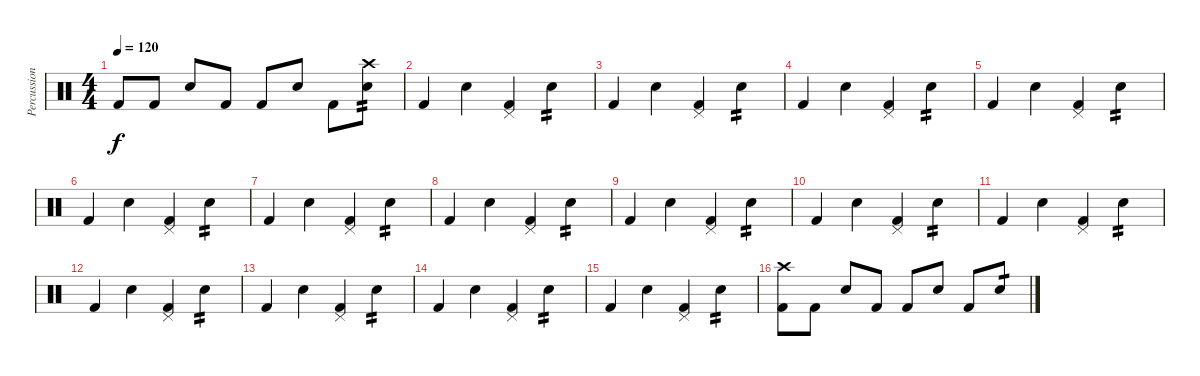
\track ("Percussion" "Percussion") {instrument percussion}
\staff {score}
\articulation defaults
\ts (4 4)
\tempo 120
\clef neutral
\ks c "Kick (hit) 2".8{dy f} "Kick (hit) 2".8 "Snare (hit) 2".8 "Kick (hit) 2".8 "Kick (hit) 2".8 "Snare (hit) 2".8 "Kick (hit) 2".8
("Snare (hit) 2" "Crash high (hit)").8{tp 2} |
"Kick (hit) 2".4 "Snare (hit) 2".4 ("Kick (hit) 2" "Pedal Hi-Hat (hit)").4 "Snare (hit) 2".4{tp 2} |
"Kick (hit) 2".4 "Snare (hit) 2".4 ("Kick (hit) 2" "Pedal Hi-Hat (hit)").4 "Snare (hit) 2".4{tp 2} |
"Kick (hit) 2".4 "Snare (hit) 2".4 ("Kick (hit) 2" "Pedal Hi-Hat (hit)").4 "Snare (hit) 2".4{tp 2} |
"Kick (hit) 2".4 "Snare (hit) 2".4 ("Kick (hit) 2" "Pedal Hi-Hat (hit)").4 "Snare (hit) 2".4{tp 2} |
"Kick (hit) 2".4 "Snare (hit) 2".4 ("Kick (hit) 2" "Pedal Hi-Hat (hit)").4 "Snare (hit) 2".4{tp 2} |
"Kick (hit) 2".4 "Snare (hit) 2".4 ("Kick (hit) 2" "Pedal Hi-Hat (hit)").4 "Snare (hit) 2".4{tp 2} |
"Kick (hit) 2".4 "Snare (hit) 2".4 ("Kick (hit) 2" "Pedal Hi-Hat (hit)").4 "Snare (hit) 2".4{tp 2} |
"Kick (hit) 2".4 "Snare (hit) 2".4 ("Kick (hit) 2" "Pedal Hi-Hat (hit)").4 "Snare (hit) 2".4{tp 2} |
"Kick (hit) 2".4 "Snare (hit) 2".4 ("Kick (hit) 2" "Pedal Hi-Hat (hit)").4 "Snare (hit) 2".4{tp 2} |
"Kick (hit) 2".4 "Snare (hit) 2".4 ("Kick (hit) 2" "Pedal Hi-Hat (hit)").4 "Snare (hit) 2".4{tp 2} |
"Kick (hit) 2".4 "Snare (hit) 2".4 ("Kick (hit) 2" "Pedal Hi-Hat (hit)").4 "Snare (hit) 2".4{tp 2} |
"Kick (hit) 2".4 "Snare (hit) 2".4 ("Kick (hit) 2" "Pedal Hi-Hat (hit)").4 "Snare (hit) 2".4{tp 2} |
"Kick (hit) 2".4 "Snare (hit) 2".4 ("Kick (hit) 2" "Pedal Hi-Hat (hit)").4 "Snare (hit) 2".4{tp 2} |
"Kick (hit) 2".4 "Snare (hit) 2".4 ("Kick (hit) 2" "Pedal Hi-Hat (hit)").4 "Snare (hit) 2".4{tp 2} |
("Kick (hit) 2" "Crash high (hit)").8 "Kick (hit) 2".8 "Snare (hit) 2".8 "Kick (hit) 2".8 "Kick (hit) 2".8 "Snare (hit) 2".8 "Kick (hit) 2".8 "Snare (hit) 2".8{tp 1}
